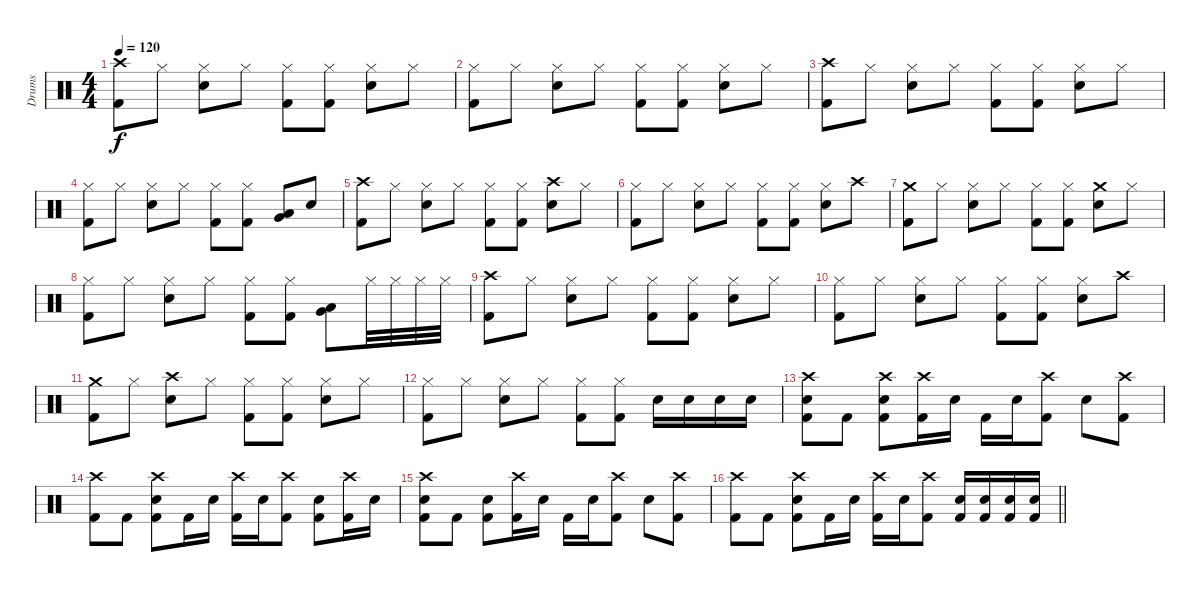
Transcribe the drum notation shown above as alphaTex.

\track ("Drums" "Drums") {instrument percussion}
\staff {score}
\articulation defaults
\ts (4 4)
\tempo 120
\clef neutral
\ks c
("Crash high (hit)" "Kick (hit) 2").8{dy f} "Hi-Hat (closed)".8 ("Hi-Hat (closed)" "Electric Snare (hit)").8 "Hi-Hat (closed)".8 ("Hi-Hat (closed)" "Kick (hit) 2").8 ("Hi-Hat (closed)" "Kick (hit) 2").8 ("Hi-Hat (closed)" "Electric Snare (hit)").8 "Hi-Hat (closed)".8 |
("Hi-Hat (closed)" "Kick (hit) 2").8 "Hi-Hat (closed)".8 ("Hi-Hat (closed)" "Electric Snare (hit)").8 "Hi-Hat (closed)".8 ("Hi-Hat (closed)" "Kick (hit) 2").8 ("Hi-Hat (closed)" "Kick (hit) 2").8 ("Hi-Hat (closed)" "Electric Snare (hit)").8 "Hi-Hat (closed)".8 |
("Crash high (hit)" "Kick (hit) 2").8 "Hi-Hat (closed)".8 ("Hi-Hat (closed)" "Electric Snare (hit)").8 "Hi-Hat (closed)".8 ("Hi-Hat (closed)" "Kick (hit) 2").8 ("Hi-Hat (closed)" "Kick (hit) 2").8 ("Hi-Hat (closed)" "Electric Snare (hit)").8 "Hi-Hat (closed)".8 |
("Hi-Hat (closed)" "Kick (hit) 2").8 "Hi-Hat (closed)".8 ("Hi-Hat (closed)" "Electric Snare (hit)").8 "Hi-Hat (closed)".8 ("Hi-Hat (closed)" "Kick (hit) 2").8 ("Hi-Hat (closed)" "Kick (hit) 2").8 ("Low Tom (hit)" "Very Low Tom (hit)").8 "Electric Snare (hit)".8 |
("Crash high (hit)" "Kick (hit) 2").8 "Hi-Hat (closed)".8 ("Hi-Hat (closed)" "Electric Snare (hit)").8 "Hi-Hat (closed)".8 ("Hi-Hat (closed)" "Kick (hit) 2").8 ("Hi-Hat (closed)" "Kick (hit) 2").8 ("Crash high (hit)" "Electric Snare (hit)").8 "Hi-Hat (closed)".8 |
("Hi-Hat (closed)" "Kick (hit) 2").8 "Hi-Hat (closed)".8 ("Hi-Hat (closed)" "Electric Snare (hit)").8 "Hi-Hat (closed)".8 ("Hi-Hat (closed)" "Kick (hit) 2").8 ("Hi-Hat (closed)" "Kick (hit) 2").8 ("Hi-Hat (closed)" "Electric Snare (hit)").8 "Crash high (hit)".8 |
("Crash medium (hit)" "Kick (hit) 2").8 "Hi-Hat (closed)".8 ("Hi-Hat (closed)" "Electric Snare (hit)").8 "Hi-Hat (closed)".8 ("Hi-Hat (closed)" "Kick (hit) 2").8 ("Hi-Hat (closed)" "Kick (hit) 2").8 ("Crash medium (hit)" "Electric Snare (hit)").8 "Hi-Hat (closed)".8 |
("Hi-Hat (closed)" "Kick (hit) 2").8 "Hi-Hat (closed)".8 ("Hi-Hat (closed)" "Electric Snare (hit)").8 "Hi-Hat (closed)".8 ("Hi-Hat (closed)" "Kick (hit) 2").8 ("Hi-Hat (closed)" "Kick (hit) 2").8 ("Low Tom (hit)" "Very Low Tom (hit)").8 "Hi-Hat (closed)".32 "Hi-Hat (closed)".32 "Hi-Hat (closed)".32 "Hi-Hat (closed)".32 |
("Crash high (hit)" "Kick (hit) 2").8 "Hi-Hat (closed)".8 ("Hi-Hat (closed)" "Electric Snare (hit)").8 "Hi-Hat (closed)".8 ("Hi-Hat (closed)" "Kick (hit) 2").8 ("Hi-Hat (closed)" "Kick (hit) 2").8 ("Hi-Hat (closed)" "Electric Snare (hit)").8 "Hi-Hat (closed)".8 |
("Hi-Hat (closed)" "Kick (hit) 2").8 "Hi-Hat (closed)".8 ("Hi-Hat (closed)" "Electric Snare (hit)").8 "Hi-Hat (closed)".8 ("Hi-Hat (closed)" "Kick (hit) 2").8 ("Hi-Hat (closed)" "Kick (hit) 2").8 ("Hi-Hat (closed)" "Electric Snare (hit)").8 "Crash high (hit)".8 |
("Crash medium (hit)" "Kick (hit) 2").8 "Hi-Hat (closed)".8 ("Crash high (hit)" "Electric Snare (hit)").8 "Hi-Hat (closed)".8 ("Hi-Hat (closed)" "Kick (hit) 2").8 ("Hi-Hat (closed)" "Kick (hit) 2").8 ("Hi-Hat (closed)" "Electric Snare (hit)").8 "Hi-Hat (closed)".8 |
("Hi-Hat (closed)" "Kick (hit) 2").8 "Hi-Hat (closed)".8 ("Hi-Hat (closed)" "Electric Snare (hit)").8 "Hi-Hat (closed)".8 ("Hi-Hat (closed)" "Kick (hit) 2").8 ("Hi-Hat (closed)" "Kick (hit) 2").8 "Electric Snare (hit)".16 "Electric Snare (hit)".16 "Electric Snare (hit)".16 "Electric Snare (hit)".16 |
("Crash high (hit)" "Electric Snare (hit)" "Kick (hit) 2").8 "Kick (hit) 2".8 ("Crash high (hit)" "Electric Snare (hit)" "Kick (hit) 2").8 ("Crash high (hit)" "Kick (hit) 2").16 "Electric Snare (hit)".16 "Kick (hit) 2".16 "Electric Snare (hit)".16 ("Crash high (hit)" "Kick (hit) 2").8 "Electric Snare (hit)".8 ("Crash high (hit)" "Kick (hit) 2").8 |
("Crash high (hit)" "Kick (hit) 2").8 "Kick (hit) 2".8 ("Crash high (hit)" "Electric Snare (hit)" "Kick (hit) 2").8 "Kick (hit) 2".16 "Electric Snare (hit)".16 ("Crash high (hit)" "Kick (hit) 2").16 "Electric Snare (hit)".16 ("Crash high (hit)" "Kick (hit) 2").8 ("Electric Snare (hit)" "Kick (hit) 2").8 ("Crash high (hit)" "Kick (hit) 2").16 "Electric Snare (hit)".16 |
("Crash high (hit)" "Electric Snare (hit)" "Kick (hit) 2").8 "Kick (hit) 2".8 ("Electric Snare (hit)" "Kick (hit) 2").8 ("Crash high (hit)" "Kick (hit) 2").16 "Electric Snare (hit)".16 "Kick (hit) 2".16 "Electric Snare (hit)".16 ("Crash high (hit)" "Kick (hit) 2").8 "Electric Snare (hit)".8 ("Crash high (hit)" "Kick (hit) 2").8 |
\barLineRight lightlight
("Crash high (hit)" "Kick (hit) 2").8 "Kick (hit) 2".8 ("Crash high (hit)" "Electric Snare (hit)" "Kick (hit) 2").8 "Kick (hit) 2".16 "Electric Snare (hit)".16 ("Crash high (hit)" "Kick (hit) 2").16 "Electric Snare (hit)".16 ("Crash high (hit)" "Kick (hit) 2").8 ("Electric Snare (hit)" "Kick (hit) 2").16 ("Electric Snare (hit)" "Kick (hit) 2").16 ("Electric Snare (hit)" "Kick (hit) 2").16 ("Electric Snare (hit)" "Kick (hit) 2").16
